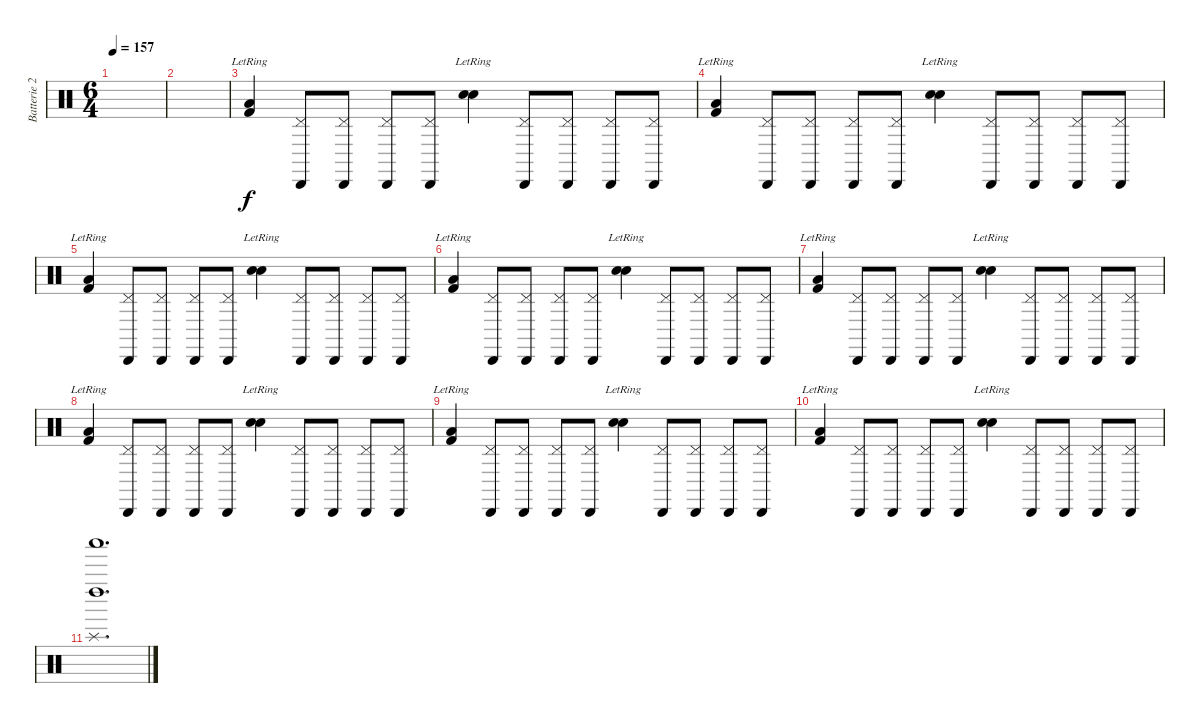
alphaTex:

\track ("Batterie 2" "Batterie 2") {instrument percussion}
\staff {score}
\articulation defaults
\ts (6 4)
\tempo 157
\clef neutral
\ks c
|
|
("Kick (hit) 2"{lr} "Low Floor Tom (hit)").4 ("Pedal Hi-Hat (hit)" "Cabasa (hit)").8 ("Pedal Hi-Hat (hit)" "Cabasa (hit)").8 ("Pedal Hi-Hat (hit)" "Cabasa (hit)").8 ("Pedal Hi-Hat (hit)" "Cabasa (hit)").8 ("Snare (hit) 2"{lr} "Electric Snare (hit)").4 ("Pedal Hi-Hat (hit)" "Cabasa (hit)").8 ("Pedal Hi-Hat (hit)" "Cabasa (hit)").8 ("Pedal Hi-Hat (hit)" "Cabasa (hit)").8 ("Pedal Hi-Hat (hit)" "Cabasa (hit)").8 |
("Kick (hit) 2"{lr} "Low Floor Tom (hit)").4 ("Pedal Hi-Hat (hit)" "Cabasa (hit)").8 ("Pedal Hi-Hat (hit)" "Cabasa (hit)").8 ("Pedal Hi-Hat (hit)" "Cabasa (hit)").8 ("Pedal Hi-Hat (hit)" "Cabasa (hit)").8 ("Snare (hit) 2"{lr} "Electric Snare (hit)").4 ("Pedal Hi-Hat (hit)" "Cabasa (hit)").8 ("Pedal Hi-Hat (hit)" "Cabasa (hit)").8 ("Pedal Hi-Hat (hit)" "Cabasa (hit)").8 ("Pedal Hi-Hat (hit)" "Cabasa (hit)").8 |
("Kick (hit) 2"{lr} "Low Floor Tom (hit)").4 ("Pedal Hi-Hat (hit)" "Cabasa (hit)").8 ("Pedal Hi-Hat (hit)" "Cabasa (hit)").8 ("Pedal Hi-Hat (hit)" "Cabasa (hit)").8 ("Pedal Hi-Hat (hit)" "Cabasa (hit)").8 ("Snare (hit) 2"{lr} "Electric Snare (hit)").4 ("Pedal Hi-Hat (hit)" "Cabasa (hit)").8 ("Pedal Hi-Hat (hit)" "Cabasa (hit)").8 ("Pedal Hi-Hat (hit)" "Cabasa (hit)").8 ("Pedal Hi-Hat (hit)" "Cabasa (hit)").8 |
("Kick (hit) 2"{lr} "Low Floor Tom (hit)").4 ("Pedal Hi-Hat (hit)" "Cabasa (hit)").8 ("Pedal Hi-Hat (hit)" "Cabasa (hit)").8 ("Pedal Hi-Hat (hit)" "Cabasa (hit)").8 ("Pedal Hi-Hat (hit)" "Cabasa (hit)").8 ("Snare (hit) 2"{lr} "Electric Snare (hit)").4 ("Pedal Hi-Hat (hit)" "Cabasa (hit)").8 ("Pedal Hi-Hat (hit)" "Cabasa (hit)").8 ("Pedal Hi-Hat (hit)" "Cabasa (hit)").8 ("Pedal Hi-Hat (hit)" "Cabasa (hit)").8 |
("Kick (hit) 2"{lr} "Low Floor Tom (hit)").4 ("Pedal Hi-Hat (hit)" "Cabasa (hit)").8 ("Pedal Hi-Hat (hit)" "Cabasa (hit)").8 ("Pedal Hi-Hat (hit)" "Cabasa (hit)").8 ("Pedal Hi-Hat (hit)" "Cabasa (hit)").8 ("Snare (hit) 2"{lr} "Electric Snare (hit)").4 ("Pedal Hi-Hat (hit)" "Cabasa (hit)").8 ("Pedal Hi-Hat (hit)" "Cabasa (hit)").8 ("Pedal Hi-Hat (hit)" "Cabasa (hit)").8 ("Pedal Hi-Hat (hit)" "Cabasa (hit)").8 |
("Kick (hit) 2"{lr} "Low Floor Tom (hit)").4 ("Pedal Hi-Hat (hit)" "Cabasa (hit)").8 ("Pedal Hi-Hat (hit)" "Cabasa (hit)").8 ("Pedal Hi-Hat (hit)" "Cabasa (hit)").8 ("Pedal Hi-Hat (hit)" "Cabasa (hit)").8 ("Snare (hit) 2"{lr} "Electric Snare (hit)").4 ("Pedal Hi-Hat (hit)" "Cabasa (hit)").8 ("Pedal Hi-Hat (hit)" "Cabasa (hit)").8 ("Pedal Hi-Hat (hit)" "Cabasa (hit)").8 ("Pedal Hi-Hat (hit)" "Cabasa (hit)").8 |
("Kick (hit) 2"{lr} "Low Floor Tom (hit)").4 ("Pedal Hi-Hat (hit)" "Cabasa (hit)").8 ("Pedal Hi-Hat (hit)" "Cabasa (hit)").8 ("Pedal Hi-Hat (hit)" "Cabasa (hit)").8 ("Pedal Hi-Hat (hit)" "Cabasa (hit)").8 ("Snare (hit) 2"{lr} "Electric Snare (hit)").4 ("Pedal Hi-Hat (hit)" "Cabasa (hit)").8 ("Pedal Hi-Hat (hit)" "Cabasa (hit)").8 ("Pedal Hi-Hat (hit)" "Cabasa (hit)").8 ("Pedal Hi-Hat (hit)" "Cabasa (hit)").8 |
("Kick (hit) 2"{lr} "Low Floor Tom (hit)").4 ("Pedal Hi-Hat (hit)" "Cabasa (hit)").8 ("Pedal Hi-Hat (hit)" "Cabasa (hit)").8 ("Pedal Hi-Hat (hit)" "Cabasa (hit)").8 ("Pedal Hi-Hat (hit)" "Cabasa (hit)").8 ("Snare (hit) 2"{lr} "Electric Snare (hit)").4 ("Pedal Hi-Hat (hit)" "Cabasa (hit)").8 ("Pedal Hi-Hat (hit)" "Cabasa (hit)").8 ("Pedal Hi-Hat (hit)" "Cabasa (hit)").8 ("Pedal Hi-Hat (hit)" "Cabasa (hit)").8 |
("Left Maraca (hit)" "Shaker (hit)" "Splash (hit)").1{d}
